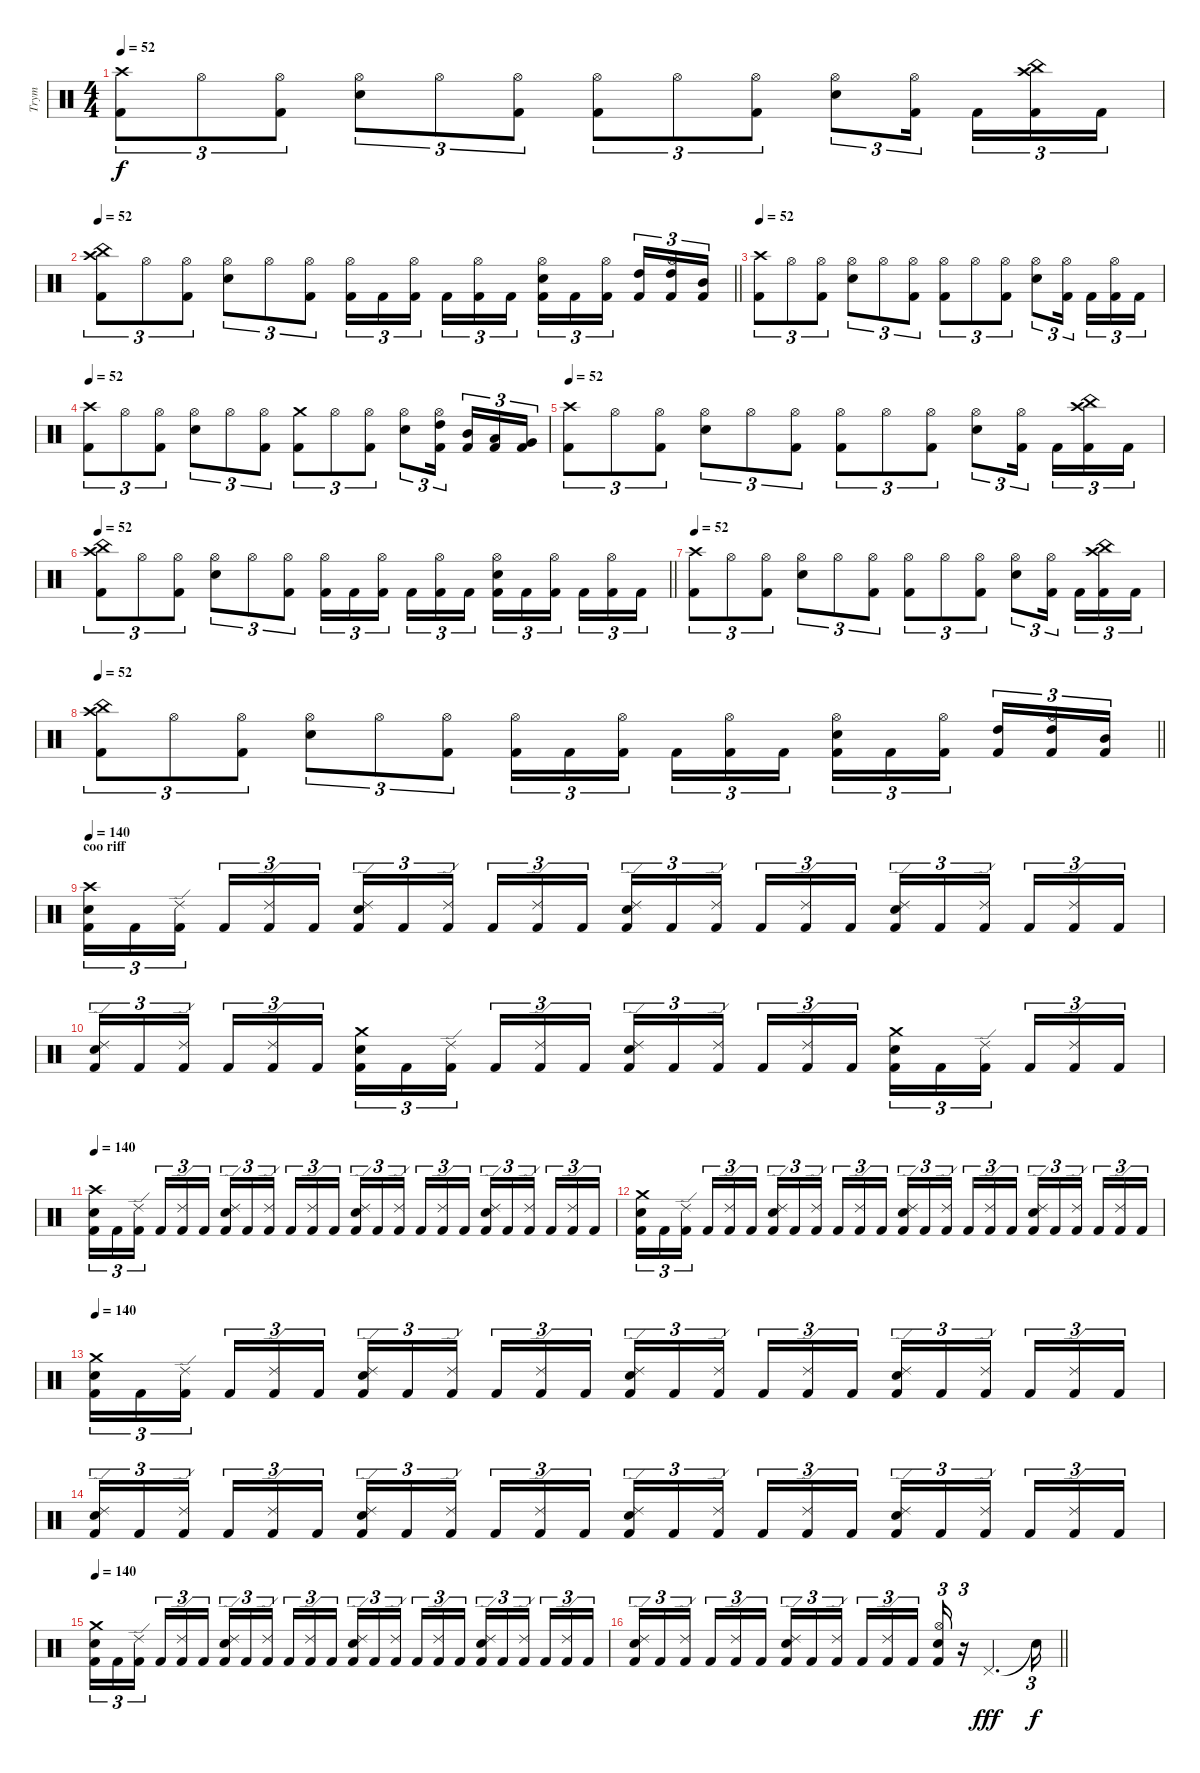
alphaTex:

\track ("Trym" "Trym") {instrument percussion}
\staff {score}
\articulation defaults
\ts (4 4)
\tempo 52
\clef neutral
\ks c
("Crash high (hit)" "Kick (hit) 2").8{tu (3 2) dy f} "Hi-Hat (open)".8{tu (3 2)} ("Hi-Hat (open)" "Kick (hit) 2").8{tu (3 2)} ("Hi-Hat (open)" "Electric Snare (hit)").8{tu (3 2)} "Hi-Hat (open)".8{tu (3 2)} ("Hi-Hat (open)" "Kick (hit) 2").8{tu (3 2)} ("Hi-Hat (open)" "Kick (hit) 2").8{tu (3 2)} "Hi-Hat (open)".8{tu (3 2)} ("Hi-Hat (open)" "Kick (hit) 2").8{tu (3 2)} ("Hi-Hat (open)" "Electric Snare (hit)").8{tu (3 2)} ("Hi-Hat (open)" "Kick (hit) 2").16{tu (3 2) beam splitsecondary} "Kick (hit) 2".16{tu (3 2)} ("Crash high (hit)" "China (hit)" "Kick (hit) 2").16{tu (3 2)} "Kick (hit) 2".16{tu (3 2)} |
\tempo 52
\barLineRight lightlight
("China (hit)" "Crash high (hit)" "Kick (hit) 2").8{tu (3 2)} "Hi-Hat (open)".8{tu (3 2)} ("Hi-Hat (open)" "Kick (hit) 2").8{tu (3 2)} ("Hi-Hat (open)" "Electric Snare (hit)").8{tu (3 2)} "Hi-Hat (open)".8{tu (3 2)} ("Hi-Hat (open)" "Kick (hit) 2").8{tu (3 2)} ("Hi-Hat (open)" "Kick (hit) 2").16{tu (3 2)} "Kick (hit) 2".16{tu (3 2)} ("Hi-Hat (open)" "Kick (hit) 2").16{tu (3 2) beam splitsecondary} "Kick (hit) 2".16{tu (3 2)} ("Hi-Hat (open)" "Kick (hit) 2").16{tu (3 2)} "Kick (hit) 2".16{tu (3 2)} ("Hi-Hat (open)" "Electric Snare (hit)" "Kick (hit) 2").16{tu (3 2)} "Kick (hit) 2".16{tu (3 2)} ("Hi-Hat (open)" "Kick (hit) 2").16{tu (3 2) beam splitsecondary} ("High Tom (hit)" "Kick (hit) 2").16{tu (3 2)} ("Hi-Hat (open)" "High Tom (hit)" "Kick (hit) 2").16{tu (3 2)} ("Mid Tom (hit)" "Kick (hit) 2").16{tu (3 2)} |
\tempo 52
("Crash high (hit)" "Kick (hit) 2").8{tu (3 2)} "Hi-Hat (open)".8{tu (3 2)} ("Hi-Hat (open)" "Kick (hit) 2").8{tu (3 2)} ("Hi-Hat (open)" "Electric Snare (hit)").8{tu (3 2)} "Hi-Hat (open)".8{tu (3 2)} ("Hi-Hat (open)" "Kick (hit) 2").8{tu (3 2)} ("Hi-Hat (open)" "Kick (hit) 2").8{tu (3 2)} "Hi-Hat (open)".8{tu (3 2)} ("Hi-Hat (open)" "Kick (hit) 2").8{tu (3 2)} ("Hi-Hat (open)" "Electric Snare (hit)").8{tu (3 2)} ("Hi-Hat (open)" "Kick (hit) 2").16{tu (3 2) beam splitsecondary} "Kick (hit) 2".16{tu (3 2)} ("Hi-Hat (open)" "Kick (hit) 2").16{tu (3 2)} "Kick (hit) 2".16{tu (3 2)} |
\tempo 52
("Crash high (hit)" "Kick (hit) 2").8{tu (3 2)} "Hi-Hat (open)".8{tu (3 2)} ("Hi-Hat (open)" "Kick (hit) 2").8{tu (3 2)} ("Hi-Hat (open)" "Electric Snare (hit)").8{tu (3 2)} "Hi-Hat (open)".8{tu (3 2)} ("Hi-Hat (open)" "Kick (hit) 2").8{tu (3 2)} ("Crash medium (hit)" "Kick (hit) 2").8{tu (3 2)} "Hi-Hat (open)".8{tu (3 2)} ("Hi-Hat (open)" "Kick (hit) 2").8{tu (3 2)} ("Hi-Hat (open)" "Electric Snare (hit)").8{tu (3 2)} ("Hi-Hat (open)" "High Tom (hit)" "Kick (hit) 2").16{tu (3 2) beam splitsecondary} ("Mid Tom (hit)" "Kick (hit) 2").16{tu (3 2)} ("Low Tom (hit)" "Kick (hit) 2").16{tu (3 2)} ("Very Low Tom (hit)" "Kick (hit) 2").16{tu (3 2)} |
\tempo 52
("Crash high (hit)" "Kick (hit) 2").8{tu (3 2)} "Hi-Hat (open)".8{tu (3 2)} ("Hi-Hat (open)" "Kick (hit) 2").8{tu (3 2)} ("Hi-Hat (open)" "Electric Snare (hit)").8{tu (3 2)} "Hi-Hat (open)".8{tu (3 2)} ("Hi-Hat (open)" "Kick (hit) 2").8{tu (3 2)} ("Hi-Hat (open)" "Kick (hit) 2").8{tu (3 2)} "Hi-Hat (open)".8{tu (3 2)} ("Hi-Hat (open)" "Kick (hit) 2").8{tu (3 2)} ("Hi-Hat (open)" "Electric Snare (hit)").8{tu (3 2)} ("Hi-Hat (open)" "Kick (hit) 2").16{tu (3 2) beam splitsecondary} "Kick (hit) 2".16{tu (3 2)} ("Crash high (hit)" "China (hit)" "Kick (hit) 2").16{tu (3 2)} "Kick (hit) 2".16{tu (3 2)} |
\tempo 52
\barLineRight lightlight
("China (hit)" "Crash high (hit)" "Kick (hit) 2").8{tu (3 2)} "Hi-Hat (open)".8{tu (3 2)} ("Hi-Hat (open)" "Kick (hit) 2").8{tu (3 2)} ("Hi-Hat (open)" "Electric Snare (hit)").8{tu (3 2)} "Hi-Hat (open)".8{tu (3 2)} ("Hi-Hat (open)" "Kick (hit) 2").8{tu (3 2)} ("Hi-Hat (open)" "Kick (hit) 2").16{tu (3 2)} "Kick (hit) 2".16{tu (3 2)} ("Hi-Hat (open)" "Kick (hit) 2").16{tu (3 2) beam splitsecondary} "Kick (hit) 2".16{tu (3 2)} ("Hi-Hat (open)" "Kick (hit) 2").16{tu (3 2)} "Kick (hit) 2".16{tu (3 2)} ("Hi-Hat (open)" "Electric Snare (hit)" "Kick (hit) 2").16{tu (3 2)} "Kick (hit) 2".16{tu (3 2)} ("Hi-Hat (open)" "Kick (hit) 2").16{tu (3 2) beam splitsecondary} "Kick (hit) 2".16{tu (3 2)} ("Hi-Hat (open)" "Kick (hit) 2").16{tu (3 2)} "Kick (hit) 2".16{tu (3 2)} |
\tempo 52
("Crash high (hit)" "Kick (hit) 2").8{tu (3 2)} "Hi-Hat (open)".8{tu (3 2)} ("Hi-Hat (open)" "Kick (hit) 2").8{tu (3 2)} ("Hi-Hat (open)" "Electric Snare (hit)").8{tu (3 2)} "Hi-Hat (open)".8{tu (3 2)} ("Hi-Hat (open)" "Kick (hit) 2").8{tu (3 2)} ("Hi-Hat (open)" "Kick (hit) 2").8{tu (3 2)} "Hi-Hat (open)".8{tu (3 2)} ("Hi-Hat (open)" "Kick (hit) 2").8{tu (3 2)} ("Hi-Hat (open)" "Electric Snare (hit)").8{tu (3 2)} ("Hi-Hat (open)" "Kick (hit) 2").16{tu (3 2) beam splitsecondary} "Kick (hit) 2".16{tu (3 2)} ("Crash high (hit)" "China (hit)" "Kick (hit) 2").16{tu (3 2)} "Kick (hit) 2".16{tu (3 2)} |
\tempo 52
\barLineRight lightlight
("China (hit)" "Crash high (hit)" "Kick (hit) 2").8{tu (3 2)} "Hi-Hat (open)".8{tu (3 2)} ("Hi-Hat (open)" "Kick (hit) 2").8{tu (3 2)} ("Hi-Hat (open)" "Electric Snare (hit)").8{tu (3 2)} "Hi-Hat (open)".8{tu (3 2)} ("Hi-Hat (open)" "Kick (hit) 2").8{tu (3 2)} ("Hi-Hat (open)" "Kick (hit) 2").16{tu (3 2)} "Kick (hit) 2".16{tu (3 2)} ("Hi-Hat (open)" "Kick (hit) 2").16{tu (3 2) beam splitsecondary} "Kick (hit) 2".16{tu (3 2)} ("Hi-Hat (open)" "Kick (hit) 2").16{tu (3 2)} "Kick (hit) 2".16{tu (3 2)} ("Hi-Hat (open)" "Electric Snare (hit)" "Kick (hit) 2").16{tu (3 2)} "Kick (hit) 2".16{tu (3 2)} ("Hi-Hat (open)" "Kick (hit) 2").16{tu (3 2) beam splitsecondary} ("High Tom (hit)" "Kick (hit) 2").16{tu (3 2)} ("Hi-Hat (open)" "High Tom (hit)" "Kick (hit) 2").16{tu (3 2)} ("Mid Tom (hit)" "Kick (hit) 2").16{tu (3 2)} |
\section ("" "coo riff")
\tempo 140
("Crash high (hit)" "Electric Snare (hit)" "Kick (hit) 2").16{tu (3 2)} "Kick (hit) 2".16{tu (3 2)} ("Ride (edge) 2" "Kick (hit) 2").16{tu (3 2) beam splitsecondary} "Kick (hit) 2".16{tu (3 2)} ("Ride (edge) 2" "Kick (hit) 2").16{tu (3 2)} "Kick (hit) 2".16{tu (3 2)} ("Ride (edge) 2" "Electric Snare (hit)" "Kick (hit) 2").16{tu (3 2)} "Kick (hit) 2".16{tu (3 2)} ("Ride (edge) 2" "Kick (hit) 2").16{tu (3 2) beam splitsecondary} "Kick (hit) 2".16{tu (3 2)} ("Ride (edge) 2" "Kick (hit) 2").16{tu (3 2)} "Kick (hit) 2".16{tu (3 2)} ("Ride (edge) 2" "Electric Snare (hit)" "Kick (hit) 2").16{tu (3 2)} "Kick (hit) 2".16{tu (3 2)} ("Ride (edge) 2" "Kick (hit) 2").16{tu (3 2) beam splitsecondary} "Kick (hit) 2".16{tu (3 2)} ("Ride (edge) 2" "Kick (hit) 2").16{tu (3 2)} "Kick (hit) 2".16{tu (3 2)} ("Ride (edge) 2" "Electric Snare (hit)" "Kick (hit) 2").16{tu (3 2)} "Kick (hit) 2".16{tu (3 2)} ("Ride (edge) 2" "Kick (hit) 2").16{tu (3 2) beam splitsecondary} "Kick (hit) 2".16{tu (3 2)} ("Ride (edge) 2" "Kick (hit) 2").16{tu (3 2)} "Kick (hit) 2".16{tu (3 2)} |
("Ride (edge) 2" "Electric Snare (hit)" "Kick (hit) 2").16{tu (3 2)} "Kick (hit) 2".16{tu (3 2)} ("Ride (edge) 2" "Kick (hit) 2").16{tu (3 2) beam splitsecondary} "Kick (hit) 2".16{tu (3 2)} ("Ride (edge) 2" "Kick (hit) 2").16{tu (3 2)} "Kick (hit) 2".16{tu (3 2)} ("Crash medium (hit)" "Electric Snare (hit)" "Kick (hit) 2").16{tu (3 2)} "Kick (hit) 2".16{tu (3 2)} ("Ride (edge) 2" "Kick (hit) 2").16{tu (3 2) beam splitsecondary} "Kick (hit) 2".16{tu (3 2)} ("Ride (edge) 2" "Kick (hit) 2").16{tu (3 2)} "Kick (hit) 2".16{tu (3 2)} ("Ride (edge) 2" "Electric Snare (hit)" "Kick (hit) 2").16{tu (3 2)} "Kick (hit) 2".16{tu (3 2)} ("Ride (edge) 2" "Kick (hit) 2").16{tu (3 2) beam splitsecondary} "Kick (hit) 2".16{tu (3 2)} ("Ride (edge) 2" "Kick (hit) 2").16{tu (3 2)} "Kick (hit) 2".16{tu (3 2)} ("Crash medium (hit)" "Electric Snare (hit)" "Kick (hit) 2").16{tu (3 2)} "Kick (hit) 2".16{tu (3 2)} ("Ride (edge) 2" "Kick (hit) 2").16{tu (3 2) beam splitsecondary} "Kick (hit) 2".16{tu (3 2)} ("Ride (edge) 2" "Kick (hit) 2").16{tu (3 2)} "Kick (hit) 2".16{tu (3 2)} |
\tempo 140
("Crash high (hit)" "Electric Snare (hit)" "Kick (hit) 2").16{tu (3 2)} "Kick (hit) 2".16{tu (3 2)} ("Ride (edge) 2" "Kick (hit) 2").16{tu (3 2) beam splitsecondary} "Kick (hit) 2".16{tu (3 2)} ("Ride (edge) 2" "Kick (hit) 2").16{tu (3 2)} "Kick (hit) 2".16{tu (3 2)} ("Ride (edge) 2" "Electric Snare (hit)" "Kick (hit) 2").16{tu (3 2)} "Kick (hit) 2".16{tu (3 2)} ("Ride (edge) 2" "Kick (hit) 2").16{tu (3 2) beam splitsecondary} "Kick (hit) 2".16{tu (3 2)} ("Ride (edge) 2" "Kick (hit) 2").16{tu (3 2)} "Kick (hit) 2".16{tu (3 2)} ("Ride (edge) 2" "Electric Snare (hit)" "Kick (hit) 2").16{tu (3 2)} "Kick (hit) 2".16{tu (3 2)} ("Ride (edge) 2" "Kick (hit) 2").16{tu (3 2) beam splitsecondary} "Kick (hit) 2".16{tu (3 2)} ("Ride (edge) 2" "Kick (hit) 2").16{tu (3 2)} "Kick (hit) 2".16{tu (3 2)} ("Ride (edge) 2" "Electric Snare (hit)" "Kick (hit) 2").16{tu (3 2)} "Kick (hit) 2".16{tu (3 2)} ("Ride (edge) 2" "Kick (hit) 2").16{tu (3 2) beam splitsecondary} "Kick (hit) 2".16{tu (3 2)} ("Ride (edge) 2" "Kick (hit) 2").16{tu (3 2)} "Kick (hit) 2".16{tu (3 2)} |
("Crash medium (hit)" "Electric Snare (hit)" "Kick (hit) 2").16{tu (3 2)} "Kick (hit) 2".16{tu (3 2)} ("Ride (edge) 2" "Kick (hit) 2").16{tu (3 2) beam splitsecondary} "Kick (hit) 2".16{tu (3 2)} ("Ride (edge) 2" "Kick (hit) 2").16{tu (3 2)} "Kick (hit) 2".16{tu (3 2)} ("Ride (edge) 2" "Electric Snare (hit)" "Kick (hit) 2").16{tu (3 2)} "Kick (hit) 2".16{tu (3 2)} ("Ride (edge) 2" "Kick (hit) 2").16{tu (3 2) beam splitsecondary} "Kick (hit) 2".16{tu (3 2)} ("Ride (edge) 2" "Kick (hit) 2").16{tu (3 2)} "Kick (hit) 2".16{tu (3 2)} ("Ride (edge) 2" "Electric Snare (hit)" "Kick (hit) 2").16{tu (3 2)} "Kick (hit) 2".16{tu (3 2)} ("Ride (edge) 2" "Kick (hit) 2").16{tu (3 2) beam splitsecondary} "Kick (hit) 2".16{tu (3 2)} ("Ride (edge) 2" "Kick (hit) 2").16{tu (3 2)} "Kick (hit) 2".16{tu (3 2)} ("Ride (edge) 2" "Electric Snare (hit)" "Kick (hit) 2").16{tu (3 2)} "Kick (hit) 2".16{tu (3 2)} ("Ride (edge) 2" "Kick (hit) 2").16{tu (3 2) beam splitsecondary} "Kick (hit) 2".16{tu (3 2)} ("Ride (edge) 2" "Kick (hit) 2").16{tu (3 2)} "Kick (hit) 2".16{tu (3 2)} |
\tempo 140
("Crash medium (hit)" "Electric Snare (hit)" "Kick (hit) 2").16{tu (3 2)} "Kick (hit) 2".16{tu (3 2)} ("Ride (edge) 2" "Kick (hit) 2").16{tu (3 2) beam splitsecondary} "Kick (hit) 2".16{tu (3 2)} ("Ride (edge) 2" "Kick (hit) 2").16{tu (3 2)} "Kick (hit) 2".16{tu (3 2)} ("Ride (edge) 2" "Electric Snare (hit)" "Kick (hit) 2").16{tu (3 2)} "Kick (hit) 2".16{tu (3 2)} ("Ride (edge) 2" "Kick (hit) 2").16{tu (3 2) beam splitsecondary} "Kick (hit) 2".16{tu (3 2)} ("Ride (edge) 2" "Kick (hit) 2").16{tu (3 2)} "Kick (hit) 2".16{tu (3 2)} ("Ride (edge) 2" "Electric Snare (hit)" "Kick (hit) 2").16{tu (3 2)} "Kick (hit) 2".16{tu (3 2)} ("Ride (edge) 2" "Kick (hit) 2").16{tu (3 2) beam splitsecondary} "Kick (hit) 2".16{tu (3 2)} ("Ride (edge) 2" "Kick (hit) 2").16{tu (3 2)} "Kick (hit) 2".16{tu (3 2)} ("Ride (edge) 2" "Electric Snare (hit)" "Kick (hit) 2").16{tu (3 2)} "Kick (hit) 2".16{tu (3 2)} ("Ride (edge) 2" "Kick (hit) 2").16{tu (3 2) beam splitsecondary} "Kick (hit) 2".16{tu (3 2)} ("Ride (edge) 2" "Kick (hit) 2").16{tu (3 2)} "Kick (hit) 2".16{tu (3 2)} |
("Ride (edge) 2" "Electric Snare (hit)" "Kick (hit) 2").16{tu (3 2)} "Kick (hit) 2".16{tu (3 2)} ("Ride (edge) 2" "Kick (hit) 2").16{tu (3 2) beam splitsecondary} "Kick (hit) 2".16{tu (3 2)} ("Ride (edge) 2" "Kick (hit) 2").16{tu (3 2)} "Kick (hit) 2".16{tu (3 2)} ("Ride (edge) 2" "Electric Snare (hit)" "Kick (hit) 2").16{tu (3 2)} "Kick (hit) 2".16{tu (3 2)} ("Ride (edge) 2" "Kick (hit) 2").16{tu (3 2) beam splitsecondary} "Kick (hit) 2".16{tu (3 2)} ("Ride (edge) 2" "Kick (hit) 2").16{tu (3 2)} "Kick (hit) 2".16{tu (3 2)} ("Ride (edge) 2" "Electric Snare (hit)" "Kick (hit) 2").16{tu (3 2)} "Kick (hit) 2".16{tu (3 2)} ("Ride (edge) 2" "Kick (hit) 2").16{tu (3 2) beam splitsecondary} "Kick (hit) 2".16{tu (3 2)} ("Ride (edge) 2" "Kick (hit) 2").16{tu (3 2)} "Kick (hit) 2".16{tu (3 2)} ("Ride (edge) 2" "Electric Snare (hit)" "Kick (hit) 2").16{tu (3 2)} "Kick (hit) 2".16{tu (3 2)} ("Ride (edge) 2" "Kick (hit) 2").16{tu (3 2) beam splitsecondary} "Kick (hit) 2".16{tu (3 2)} ("Ride (edge) 2" "Kick (hit) 2").16{tu (3 2)} "Kick (hit) 2".16{tu (3 2)} |
\tempo 140
("Crash medium (hit)" "Electric Snare (hit)" "Kick (hit) 2").16{tu (3 2)} "Kick (hit) 2".16{tu (3 2)} ("Ride (edge) 2" "Kick (hit) 2").16{tu (3 2) beam splitsecondary} "Kick (hit) 2".16{tu (3 2)} ("Ride (edge) 2" "Kick (hit) 2").16{tu (3 2)} "Kick (hit) 2".16{tu (3 2)} ("Ride (edge) 2" "Electric Snare (hit)" "Kick (hit) 2").16{tu (3 2)} "Kick (hit) 2".16{tu (3 2)} ("Ride (edge) 2" "Kick (hit) 2").16{tu (3 2) beam splitsecondary} "Kick (hit) 2".16{tu (3 2)} ("Ride (edge) 2" "Kick (hit) 2").16{tu (3 2)} "Kick (hit) 2".16{tu (3 2)} ("Ride (edge) 2" "Electric Snare (hit)" "Kick (hit) 2").16{tu (3 2)} "Kick (hit) 2".16{tu (3 2)} ("Ride (edge) 2" "Kick (hit) 2").16{tu (3 2) beam splitsecondary} "Kick (hit) 2".16{tu (3 2)} ("Ride (edge) 2" "Kick (hit) 2").16{tu (3 2)} "Kick (hit) 2".16{tu (3 2)} ("Ride (edge) 2" "Electric Snare (hit)" "Kick (hit) 2").16{tu (3 2)} "Kick (hit) 2".16{tu (3 2)} ("Ride (edge) 2" "Kick (hit) 2").16{tu (3 2) beam splitsecondary} "Kick (hit) 2".16{tu (3 2)} ("Ride (edge) 2" "Kick (hit) 2").16{tu (3 2)} "Kick (hit) 2".16{tu (3 2)} |
\barLineRight lightlight
("Ride (edge) 2" "Electric Snare (hit)" "Kick (hit) 2").16{tu (3 2)} "Kick (hit) 2".16{tu (3 2)} ("Ride (edge) 2" "Kick (hit) 2").16{tu (3 2) beam splitsecondary} "Kick (hit) 2".16{tu (3 2)} ("Ride (edge) 2" "Kick (hit) 2").16{tu (3 2)} "Kick (hit) 2".16{tu (3 2)} ("Ride (edge) 2" "Electric Snare (hit)" "Kick (hit) 2").16{tu (3 2)} "Kick (hit) 2".16{tu (3 2)} ("Ride (edge) 2" "Kick (hit) 2").16{tu (3 2) beam splitsecondary} "Kick (hit) 2".16{tu (3 2)} ("Ride (edge) 2" "Kick (hit) 2").16{tu (3 2)} "Kick (hit) 2".16{tu (3 2)} ("Hi-Hat (open)" "Electric Snare (hit)" "Kick (hit) 2").16{tu (3 2)} r.16{tu (3 2)} "Pedal Hi-Hat (hit)".4{d dy fff} "Snare (hit)"{t}.16{tu (3 2) dy f}
